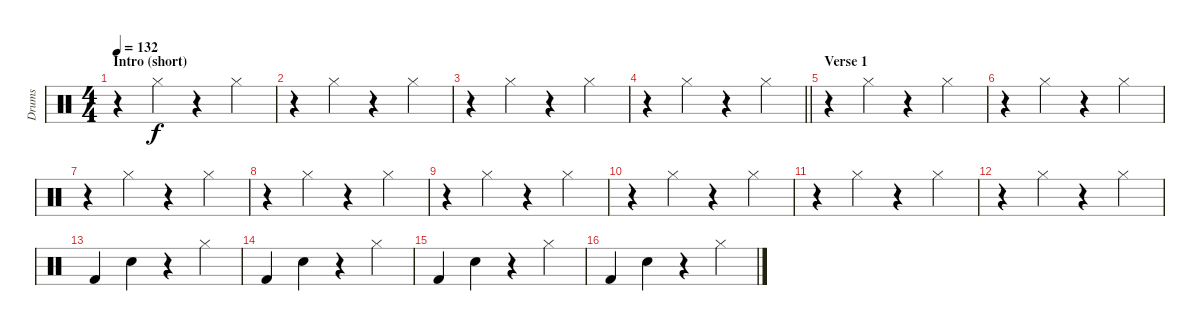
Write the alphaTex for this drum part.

\track ("Drums" "Drums") {instrument percussion}
\staff {score}
\articulation defaults
\ts (4 4)
\section ("" "Intro (short)")
\tempo 132
\clef neutral
\ks c
r.4{dy f} "Hi-Hat (closed)".4 r.4 "Hi-Hat (closed)".4 |
r.4 "Hi-Hat (closed)".4 r.4 "Hi-Hat (closed)".4 |
r.4 "Hi-Hat (closed)".4 r.4 "Hi-Hat (closed)".4 |
\barLineRight lightlight
r.4 "Hi-Hat (closed)".4 r.4 "Hi-Hat (closed)".4 |
\section ("" "Verse 1")
r.4 "Hi-Hat (closed)".4 r.4 "Hi-Hat (closed)".4 |
r.4 "Hi-Hat (closed)".4 r.4 "Hi-Hat (closed)".4 |
r.4 "Hi-Hat (closed)".4 r.4 "Hi-Hat (closed)".4 |
r.4 "Hi-Hat (closed)".4 r.4 "Hi-Hat (closed)".4 |
r.4 "Hi-Hat (closed)".4 r.4 "Hi-Hat (closed)".4 |
r.4 "Hi-Hat (closed)".4 r.4 "Hi-Hat (closed)".4 |
r.4 "Hi-Hat (closed)".4 r.4 "Hi-Hat (closed)".4 |
r.4 "Hi-Hat (closed)".4 r.4 "Hi-Hat (closed)".4 |
"Kick (hit) 2".4 "Electric Snare (hit)".4 r.4 "Hi-Hat (closed)".4 |
"Kick (hit) 2".4 "Electric Snare (hit)".4 r.4 "Hi-Hat (closed)".4 |
"Kick (hit) 2".4 "Electric Snare (hit)".4 r.4 "Hi-Hat (closed)".4 |
"Kick (hit) 2".4 "Electric Snare (hit)".4 r.4 "Hi-Hat (closed)".4
